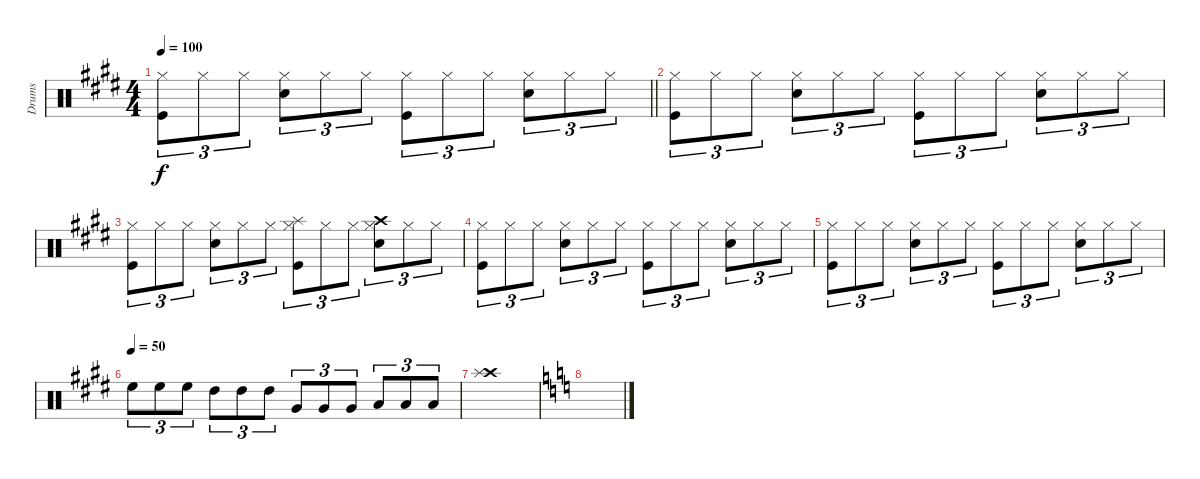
\track ("Drums" "Drums") {instrument percussion}
\staff {score}
\articulation defaults
\ts (4 4)
\tempo 100
\clef neutral
\barLineRight lightlight
\ks c#minor
("Hi-Hat (closed)" "Kick (hit)").8{tu (3 2) dy f} "Hi-Hat (closed)".8{tu (3 2)} "Hi-Hat (closed)".8{tu (3 2)} ("Hi-Hat (closed)" "Snare (hit) 2").8{tu (3 2)} "Hi-Hat (closed)".8{tu (3 2)} "Hi-Hat (closed)".8{tu (3 2)} ("Hi-Hat (closed)" "Kick (hit)").8{tu (3 2)} "Hi-Hat (closed)".8{tu (3 2)} "Hi-Hat (closed)".8{tu (3 2)} ("Hi-Hat (closed)" "Snare (hit) 2").8{tu (3 2)} "Hi-Hat (closed)".8{tu (3 2)} "Hi-Hat (closed)".8{tu (3 2)} |
\ks e
("Hi-Hat (closed)" "Kick (hit)").8{tu (3 2)} "Hi-Hat (closed)".8{tu (3 2)} "Hi-Hat (closed)".8{tu (3 2)} ("Hi-Hat (closed)" "Snare (hit) 2").8{tu (3 2)} "Hi-Hat (closed)".8{tu (3 2)} "Hi-Hat (closed)".8{tu (3 2)} ("Hi-Hat (closed)" "Kick (hit)").8{tu (3 2)} "Hi-Hat (closed)".8{tu (3 2)} "Hi-Hat (closed)".8{tu (3 2)} ("Hi-Hat (closed)" "Snare (hit) 2").8{tu (3 2)} "Hi-Hat (closed)".8{tu (3 2)} "Hi-Hat (closed)".8{tu (3 2)} |
\ks c#minor
("Hi-Hat (closed)" "Kick (hit)").8{tu (3 2)} "Hi-Hat (closed)".8{tu (3 2)} "Hi-Hat (closed)".8{tu (3 2)} ("Hi-Hat (closed)" "Snare (hit) 2").8{tu (3 2)} "Hi-Hat (closed)".8{tu (3 2)} "Hi-Hat (closed)".8{tu (3 2)} ("Hi-Hat (closed)" "Splash (hit)" "Kick (hit)").8{tu (3 2)} "Hi-Hat (closed)".8{tu (3 2)} "Hi-Hat (closed)".8{tu (3 2)} ("Hi-Hat (closed)" "Crash high (hit)" "Snare (hit) 2").8{tu (3 2)} "Hi-Hat (closed)".8{tu (3 2)} "Hi-Hat (closed)".8{tu (3 2)} |
("Hi-Hat (closed)" "Kick (hit)").8{tu (3 2)} "Hi-Hat (closed)".8{tu (3 2)} "Hi-Hat (closed)".8{tu (3 2)} ("Hi-Hat (closed)" "Snare (hit) 2").8{tu (3 2)} "Hi-Hat (closed)".8{tu (3 2)} "Hi-Hat (closed)".8{tu (3 2)} ("Hi-Hat (closed)" "Kick (hit)").8{tu (3 2)} "Hi-Hat (closed)".8{tu (3 2)} "Hi-Hat (closed)".8{tu (3 2)} ("Hi-Hat (closed)" "Snare (hit) 2").8{tu (3 2)} "Hi-Hat (closed)".8{tu (3 2)} "Hi-Hat (closed)".8{tu (3 2)} |
\ks e
("Hi-Hat (closed)" "Kick (hit)").8{tu (3 2)} "Hi-Hat (closed)".8{tu (3 2)} "Hi-Hat (closed)".8{tu (3 2)} ("Hi-Hat (closed)" "Snare (hit) 2").8{tu (3 2)} "Hi-Hat (closed)".8{tu (3 2)} "Hi-Hat (closed)".8{tu (3 2)} ("Hi-Hat (closed)" "Kick (hit)").8{tu (3 2)} "Hi-Hat (closed)".8{tu (3 2)} "Hi-Hat (closed)".8{tu (3 2)} ("Hi-Hat (closed)" "Snare (hit) 2").8{tu (3 2)} "Hi-Hat (closed)".8{tu (3 2)} "Hi-Hat (closed)".8{tu (3 2)} |
\tempo 50
\ks c#minor "High Floor Tom (hit)".8{tu (3 2)} "High Floor Tom (hit)".8{tu (3 2)} "High Floor Tom (hit)".8{tu (3 2)} "High Tom (hit)".8{tu (3 2)} "High Tom (hit)".8{tu (3 2)} "High Tom (hit)".8{tu (3 2)} "Very Low Tom (hit)".8{tu (3 2)} "Very Low Tom (hit)".8{tu (3 2)} "Very Low Tom (hit)".8{tu (3 2)} "Low Floor Tom (hit)".8{tu (3 2)} "Low Floor Tom (hit)".8{tu (3 2)} "Low Floor Tom (hit)".8{tu (3 2)}
|
("Crash high (hit)" "Splash (hit)").1 |
\ks c
